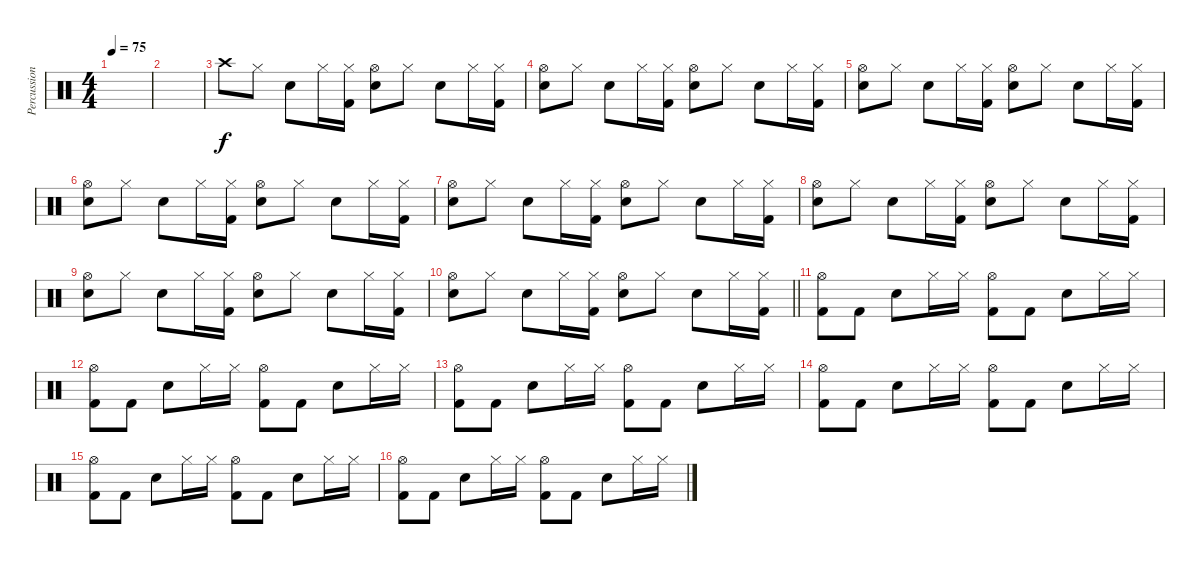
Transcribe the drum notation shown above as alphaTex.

\track ("Percussion" "Percussion") {instrument percussion}
\staff {score}
\articulation defaults
\ts (4 4)
\tempo 75
\clef neutral
\ks c
|
|
"Crash high (hit)".8 "Hi-Hat (closed)".8 "Electric Snare (hit)".8 "Hi-Hat (closed)".16 ("Hi-Hat (closed)" "Kick (hit) 2").16 ("Hi-Hat (open)" "Electric Snare (hit)").8 "Hi-Hat (closed)".8 "Electric Snare (hit)".8 "Hi-Hat (closed)".16 ("Hi-Hat (closed)" "Kick (hit) 2").16 |
("Hi-Hat (open)" "Electric Snare (hit)").8 "Hi-Hat (closed)".8 "Electric Snare (hit)".8 "Hi-Hat (closed)".16 ("Hi-Hat (closed)" "Kick (hit) 2").16 ("Hi-Hat (open)" "Electric Snare (hit)").8 "Hi-Hat (closed)".8 "Electric Snare (hit)".8 "Hi-Hat (closed)".16 ("Hi-Hat (closed)" "Kick (hit) 2").16 |
("Hi-Hat (open)" "Electric Snare (hit)").8 "Hi-Hat (closed)".8 "Electric Snare (hit)".8 "Hi-Hat (closed)".16 ("Hi-Hat (closed)" "Kick (hit) 2").16 ("Hi-Hat (open)" "Electric Snare (hit)").8 "Hi-Hat (closed)".8 "Electric Snare (hit)".8 "Hi-Hat (closed)".16 ("Hi-Hat (closed)" "Kick (hit) 2").16 |
("Hi-Hat (open)" "Electric Snare (hit)").8 "Hi-Hat (closed)".8 "Electric Snare (hit)".8 "Hi-Hat (closed)".16 ("Hi-Hat (closed)" "Kick (hit) 2").16 ("Hi-Hat (open)" "Electric Snare (hit)").8 "Hi-Hat (closed)".8 "Electric Snare (hit)".8 "Hi-Hat (closed)".16 ("Hi-Hat (closed)" "Kick (hit) 2").16 |
("Hi-Hat (open)" "Electric Snare (hit)").8 "Hi-Hat (closed)".8 "Electric Snare (hit)".8 "Hi-Hat (closed)".16 ("Hi-Hat (closed)" "Kick (hit) 2").16 ("Hi-Hat (open)" "Electric Snare (hit)").8 "Hi-Hat (closed)".8 "Electric Snare (hit)".8 "Hi-Hat (closed)".16 ("Hi-Hat (closed)" "Kick (hit) 2").16 |
("Hi-Hat (open)" "Electric Snare (hit)").8 "Hi-Hat (closed)".8 "Electric Snare (hit)".8 "Hi-Hat (closed)".16 ("Hi-Hat (closed)" "Kick (hit) 2").16 ("Hi-Hat (open)" "Electric Snare (hit)").8 "Hi-Hat (closed)".8 "Electric Snare (hit)".8 "Hi-Hat (closed)".16 ("Hi-Hat (closed)" "Kick (hit) 2").16 |
("Hi-Hat (open)" "Electric Snare (hit)").8 "Hi-Hat (closed)".8 "Electric Snare (hit)".8 "Hi-Hat (closed)".16 ("Hi-Hat (closed)" "Kick (hit) 2").16 ("Hi-Hat (open)" "Electric Snare (hit)").8 "Hi-Hat (closed)".8 "Electric Snare (hit)".8 "Hi-Hat (closed)".16 ("Hi-Hat (closed)" "Kick (hit) 2").16 |
\barLineRight lightlight
("Hi-Hat (open)" "Electric Snare (hit)").8 "Hi-Hat (closed)".8 "Electric Snare (hit)".8 "Hi-Hat (closed)".16 ("Hi-Hat (closed)" "Kick (hit) 2").16 ("Hi-Hat (open)" "Electric Snare (hit)").8 "Hi-Hat (closed)".8 "Electric Snare (hit)".8 "Hi-Hat (closed)".16 ("Hi-Hat (closed)" "Kick (hit) 2").16 |
("Hi-Hat (open)" "Kick (hit) 2").8 "Kick (hit) 2".8 "Electric Snare (hit)".8 "Hi-Hat (closed)".16 "Hi-Hat (closed)".16 ("Hi-Hat (open)" "Kick (hit) 2").8 "Kick (hit) 2".8 "Electric Snare (hit)".8 "Hi-Hat (closed)".16 "Hi-Hat (closed)".16 |
("Hi-Hat (open)" "Kick (hit) 2").8 "Kick (hit) 2".8 "Electric Snare (hit)".8 "Hi-Hat (closed)".16 "Hi-Hat (closed)".16 ("Hi-Hat (open)" "Kick (hit) 2").8 "Kick (hit) 2".8 "Electric Snare (hit)".8 "Hi-Hat (closed)".16 "Hi-Hat (closed)".16 |
("Hi-Hat (open)" "Kick (hit) 2").8 "Kick (hit) 2".8 "Electric Snare (hit)".8 "Hi-Hat (closed)".16 "Hi-Hat (closed)".16 ("Hi-Hat (open)" "Kick (hit) 2").8 "Kick (hit) 2".8 "Electric Snare (hit)".8 "Hi-Hat (closed)".16 "Hi-Hat (closed)".16 |
("Hi-Hat (open)" "Kick (hit) 2").8 "Kick (hit) 2".8 "Electric Snare (hit)".8 "Hi-Hat (closed)".16 "Hi-Hat (closed)".16 ("Hi-Hat (open)" "Kick (hit) 2").8 "Kick (hit) 2".8 "Electric Snare (hit)".8 "Hi-Hat (closed)".16 "Hi-Hat (closed)".16 |
("Hi-Hat (open)" "Kick (hit) 2").8 "Kick (hit) 2".8 "Electric Snare (hit)".8 "Hi-Hat (closed)".16 "Hi-Hat (closed)".16 ("Hi-Hat (open)" "Kick (hit) 2").8 "Kick (hit) 2".8 "Electric Snare (hit)".8 "Hi-Hat (closed)".16 "Hi-Hat (closed)".16 |
("Hi-Hat (open)" "Kick (hit) 2").8 "Kick (hit) 2".8 "Electric Snare (hit)".8 "Hi-Hat (closed)".16 "Hi-Hat (closed)".16 ("Hi-Hat (open)" "Kick (hit) 2").8 "Kick (hit) 2".8 "Electric Snare (hit)".8 "Hi-Hat (closed)".16 "Hi-Hat (closed)".16
